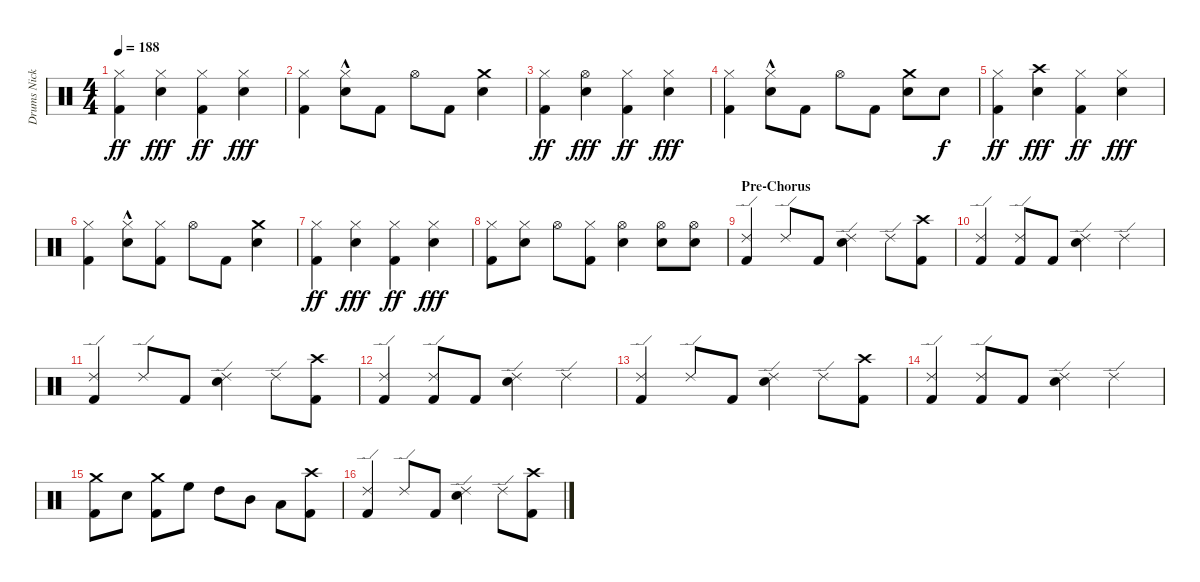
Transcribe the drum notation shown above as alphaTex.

\track ("Drums Nicko McBrain" "Drums Nick") {instrument percussion}
\staff {score}
\articulation defaults
\ts (4 4)
\tempo 188
\clef neutral
\ks c
("Hi-Hat (closed)" "Kick (hit) 2").4{dy ff} ("Hi-Hat (closed)" "Electric Snare (hit)").4{dy fff} ("Hi-Hat (closed)" "Kick (hit) 2").4{dy ff} ("Hi-Hat (closed)" "Electric Snare (hit)").4{dy fff} |
("Hi-Hat (closed)" "Kick (hit) 2").4 ("Hi-Hat (closed)" "Electric Snare (hit)"{hac}).8 "Kick (hit) 2".8 "Hi-Hat (open)".8 "Kick (hit) 2".8 ("Crash medium (hit)" "Electric Snare (hit)").4 |
("Hi-Hat (closed)" "Kick (hit) 2").4{dy ff} ("Hi-Hat (open)" "Electric Snare (hit)").4{dy fff} ("Hi-Hat (closed)" "Kick (hit) 2").4{dy ff} ("Hi-Hat (closed)" "Electric Snare (hit)").4{dy fff} |
("Hi-Hat (closed)" "Kick (hit) 2").4 ("Hi-Hat (closed)" "Electric Snare (hit)"{hac}).8 "Kick (hit) 2".8 "Hi-Hat (open)".8 "Kick (hit) 2".8 ("Crash medium (hit)" "Electric Snare (hit)").8 "Electric Snare (hit)".8{dy f} |
("Hi-Hat (closed)" "Kick (hit) 2").4{dy ff} ("Crash high (hit)" "Electric Snare (hit)").4{dy fff} ("Hi-Hat (closed)" "Kick (hit) 2").4{dy ff} ("Hi-Hat (closed)" "Electric Snare (hit)").4{dy fff} |
("Hi-Hat (closed)" "Kick (hit) 2").4 ("Hi-Hat (closed)" "Electric Snare (hit)"{hac}).8 ("Hi-Hat (closed)" "Kick (hit) 2").8 "Hi-Hat (open)".8 "Kick (hit) 2".8 ("Crash medium (hit)" "Electric Snare (hit)").4 |
("Hi-Hat (closed)" "Kick (hit) 2").4{dy ff} ("Hi-Hat (closed)" "Electric Snare (hit)").4{dy fff} ("Hi-Hat (closed)" "Kick (hit) 2").4{dy ff} ("Hi-Hat (closed)" "Electric Snare (hit)").4{dy fff} |
("Hi-Hat (closed)" "Kick (hit) 2").8 ("Hi-Hat (closed)" "Electric Snare (hit)").8 "Hi-Hat (open)".8 ("Hi-Hat (closed)" "Kick (hit) 2").8 ("Hi-Hat (open)" "Electric Snare (hit)").4 ("Hi-Hat (open)" "Electric Snare (hit)").8 ("Hi-Hat (open)" "Electric Snare (hit)").8 |
\section ("" "Pre-Chorus")
("Ride (edge) 2" "Kick (hit) 2").4 "Ride (edge) 2".8 "Kick (hit) 2".8 ("Ride (edge) 2" "Electric Snare (hit)").4 "Ride (edge) 2".8 ("Crash high (hit)" "Kick (hit) 2").8 |
("Ride (edge) 2" "Kick (hit) 2").4 ("Ride (edge) 2" "Kick (hit) 2").8 "Kick (hit) 2".8 ("Ride (edge) 2" "Electric Snare (hit)").4 "Ride (edge) 2".4 |
("Ride (edge) 2" "Kick (hit) 2").4 "Ride (edge) 2".8 "Kick (hit) 2".8 ("Ride (edge) 2" "Electric Snare (hit)").4 "Ride (edge) 2".8 ("Crash high (hit)" "Kick (hit) 2").8 |
("Ride (edge) 2" "Kick (hit) 2").4 ("Ride (edge) 2" "Kick (hit) 2").8 "Kick (hit) 2".8 ("Ride (edge) 2" "Electric Snare (hit)").4 "Ride (edge) 2".4 |
("Ride (edge) 2" "Kick (hit) 2").4 "Ride (edge) 2".8 "Kick (hit) 2".8 ("Ride (edge) 2" "Electric Snare (hit)").4 "Ride (edge) 2".8 ("Crash high (hit)" "Kick (hit) 2").8 |
("Ride (edge) 2" "Kick (hit) 2").4 ("Ride (edge) 2" "Kick (hit) 2").8 "Kick (hit) 2".8 ("Ride (edge) 2" "Electric Snare (hit)").4 "Ride (edge) 2".4 |
("Crash medium (hit)" "Kick (hit) 2").8 "Electric Snare (hit)".8 ("Crash medium (hit)" "Kick (hit) 2").8 "High Floor Tom (hit)".8 "High Tom (hit)".8 "Mid Tom (hit)".8 "Low Tom (hit)".8 ("Crash high (hit)" "Kick (hit) 2").8 |
("Ride (edge) 2" "Kick (hit) 2").4 "Ride (edge) 2".8 "Kick (hit) 2".8 ("Ride (edge) 2" "Electric Snare (hit)").4 "Ride (edge) 2".8 ("Crash high (hit)" "Kick (hit) 2").8
